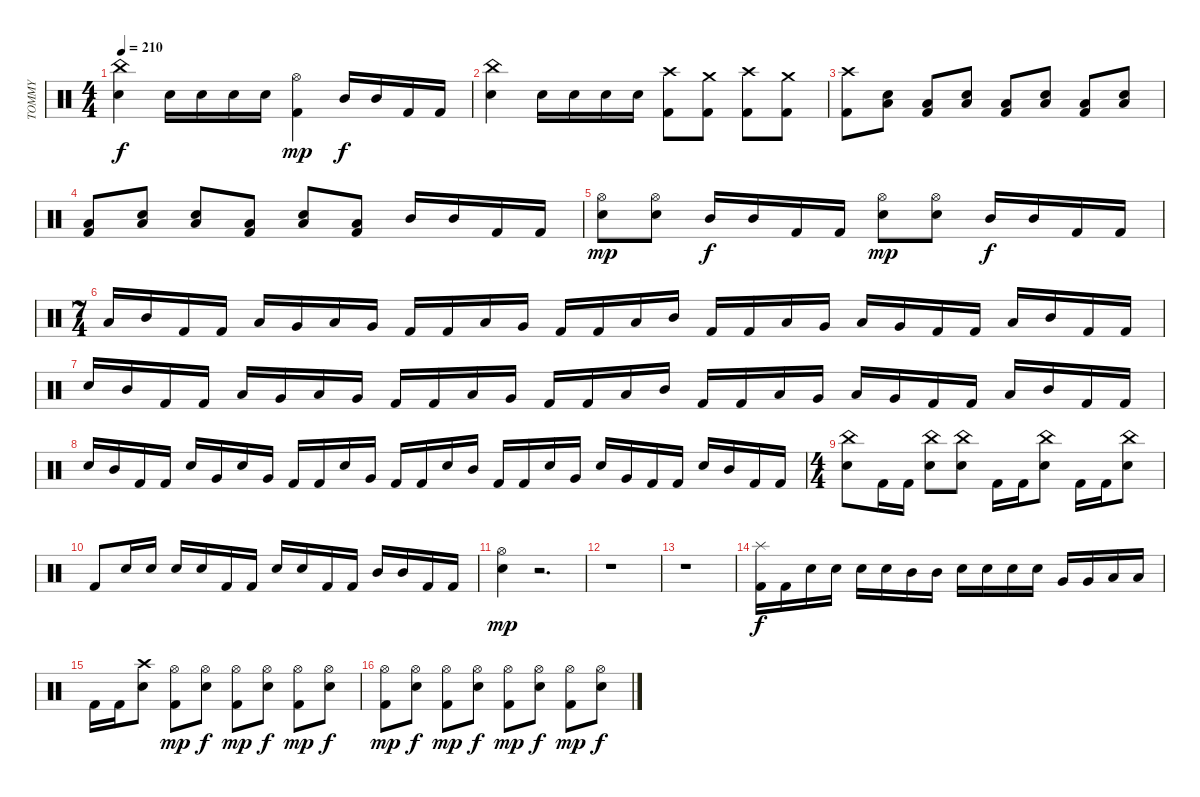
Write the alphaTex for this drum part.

\track ("TOMMY" "TOMMY") {instrument percussion}
\staff {score}
\articulation defaults
\ts (4 4)
\tempo 210
\clef neutral
\ks c
("Snare (hit) 2" "China (hit)").4{dy f} "Snare (hit) 2".16 "Snare (hit) 2".16 "Snare (hit) 2".16 "Snare (hit) 2".16 ("Kick (hit) 2" "Hi-Hat (open)").4{dy mp} "Mid Tom (hit)".16{dy f} "Mid Tom (hit)".16 "Kick (hit) 2".16 "Kick (hit) 2".16 |
("Snare (hit) 2" "China (hit)").4 "Snare (hit) 2".16 "Snare (hit) 2".16 "Snare (hit) 2".16 "Snare (hit) 2".16 ("Kick (hit) 2" "Crash high (hit)").8 ("Kick (hit) 2" "Crash medium (hit)").8 ("Kick (hit) 2" "Crash high (hit)").8 ("Kick (hit) 2" "Crash medium (hit)").8 |
("Kick (hit) 2" "Crash high (hit)").8 ("Snare (hit) 2" "Low Floor Tom (hit)").8 ("Kick (hit) 2" "Low Floor Tom (hit)").8 ("Snare (hit) 2" "Low Floor Tom (hit)").8 ("Kick (hit) 2" "Low Floor Tom (hit)").8 ("Snare (hit) 2" "Low Floor Tom (hit)").8 ("Kick (hit) 2" "Low Floor Tom (hit)").8 ("Snare (hit) 2" "Low Floor Tom (hit)").8 |
("Kick (hit) 2" "Low Floor Tom (hit)").8 ("Snare (hit) 2" "Low Floor Tom (hit)").8 ("Snare (hit) 2" "Low Floor Tom (hit)").8 ("Kick (hit) 2" "Low Floor Tom (hit)").8 ("Snare (hit) 2" "Low Floor Tom (hit)").8 ("Kick (hit) 2" "Low Floor Tom (hit)").8 "Mid Tom (hit)".16 "Mid Tom (hit)".16 "Kick (hit) 2".16 "Kick (hit) 2".16 |
("Snare (hit) 2" "Hi-Hat (open)").8{dy mp} ("Snare (hit) 2" "Hi-Hat (open)").8 "Mid Tom (hit)".16{dy f} "Mid Tom (hit)".16 "Kick (hit) 2".16 "Kick (hit) 2".16 ("Snare (hit) 2" "Hi-Hat (open)").8{dy mp} ("Snare (hit) 2" "Hi-Hat (open)").8 "Mid Tom (hit)".16{dy f} "Mid Tom (hit)".16 "Kick (hit) 2".16 "Kick (hit) 2".16 |
\ts (7 4)
"Low Floor Tom (hit)".16 "Mid Tom (hit)".16 "Kick (hit) 2".16 "Kick (hit) 2".16 "Low Floor Tom (hit)".16 "Very Low Tom (hit)".16 "Low Floor Tom (hit)".16 "Very Low Tom (hit)".16 "Kick (hit) 2".16 "Kick (hit) 2".16 "Low Floor Tom (hit)".16 "Very Low Tom (hit)".16 "Kick (hit) 2".16 "Kick (hit) 2".16 "Low Floor Tom (hit)".16 "Mid Tom (hit)".16 "Kick (hit) 2".16 "Kick (hit) 2".16 "Low Floor Tom (hit)".16 "Very Low Tom (hit)".16 "Low Floor Tom (hit)".16 "Very Low Tom (hit)".16 "Kick (hit) 2".16 "Kick (hit) 2".16 "Low Floor Tom (hit)".16 "Mid Tom (hit)".16 "Kick (hit) 2".16 "Kick (hit) 2".16 |
"Snare (hit) 2".16 "Mid Tom (hit)".16 "Kick (hit) 2".16 "Kick (hit) 2".16 "Low Floor Tom (hit)".16 "Very Low Tom (hit)".16 "Low Floor Tom (hit)".16 "Very Low Tom (hit)".16 "Kick (hit) 2".16 "Kick (hit) 2".16 "Low Floor Tom (hit)".16 "Very Low Tom (hit)".16 "Kick (hit) 2".16 "Kick (hit) 2".16 "Low Floor Tom (hit)".16 "Mid Tom (hit)".16 "Kick (hit) 2".16 "Kick (hit) 2".16 "Low Floor Tom (hit)".16 "Very Low Tom (hit)".16 "Low Floor Tom (hit)".16 "Very Low Tom (hit)".16 "Kick (hit) 2".16 "Kick (hit) 2".16 "Low Floor Tom (hit)".16 "Mid Tom (hit)".16 "Kick (hit) 2".16 "Kick (hit) 2".16 |
"Snare (hit) 2".16 "Mid Tom (hit)".16 "Kick (hit) 2".16 "Kick (hit) 2".16 "Snare (hit) 2".16 "Very Low Tom (hit)".16 "Snare (hit) 2".16 "Very Low Tom (hit)".16 "Kick (hit) 2".16 "Kick (hit) 2".16 "Snare (hit) 2".16 "Very Low Tom (hit)".16 "Kick (hit) 2".16 "Kick (hit) 2".16 "Snare (hit) 2".16 "Mid Tom (hit)".16 "Kick (hit) 2".16 "Kick (hit) 2".16 "Snare (hit) 2".16 "Very Low Tom (hit)".16 "Snare (hit) 2".16 "Very Low Tom (hit)".16 "Kick (hit) 2".16 "Kick (hit) 2".16 "Snare (hit) 2".16 "Mid Tom (hit)".16 "Kick (hit) 2".16 "Kick (hit) 2".16 |
\ts (4 4)
("Snare (hit) 2" "China (hit)").8 "Kick (hit) 2".16 "Kick (hit) 2".16 ("Snare (hit) 2" "China (hit)").8 ("Snare (hit) 2" "China (hit)").8 "Kick (hit) 2".16 "Kick (hit) 2".16 ("Snare (hit) 2" "China (hit)").8 "Kick (hit) 2".16 "Kick (hit) 2".16 ("Snare (hit) 2" "China (hit)").8 |
"Kick (hit) 2".8 "Snare (hit) 2".16 "Snare (hit) 2".16 "Snare (hit) 2".16 "Snare (hit) 2".16 "Kick (hit) 2".16 "Kick (hit) 2".16 "Snare (hit) 2".16 "Snare (hit) 2".16 "Kick (hit) 2".16 "Kick (hit) 2".16 "Mid Tom (hit)".16 "Mid Tom (hit)".16 "Kick (hit) 2".16 "Kick (hit) 2".16 |
("Snare (hit) 2" "Hi-Hat (open)").4{dy mp} r.2{d} |
r.1 |
r.1 |
("Kick (hit) 2" "Splash (hit)").16{dy f} "Kick (hit) 2".16 "Snare (hit) 2".16 "Snare (hit) 2".16 "Snare (hit) 2".16 "Snare (hit) 2".16 "Mid Tom (hit)".16 "Mid Tom (hit)".16 "Snare (hit) 2".16 "Snare (hit) 2".16 "Snare (hit) 2".16 "Snare (hit) 2".16 "Very Low Tom (hit)".16 "Very Low Tom (hit)".16 "Low Floor Tom (hit)".16 "Low Floor Tom (hit)".16 |
"Kick (hit) 2".16 "Kick (hit) 2".16 ("Snare (hit) 2" "Crash high (hit)").8 ("Kick (hit) 2" "Hi-Hat (open)").8{dy mp} ("Snare (hit) 2" "Hi-Hat (open)").8{dy f} ("Kick (hit) 2" "Hi-Hat (open)").8{dy mp} ("Snare (hit) 2" "Hi-Hat (open)").8{dy f} ("Kick (hit) 2" "Hi-Hat (open)").8{dy mp} ("Snare (hit) 2" "Hi-Hat (open)").8{dy f} |
("Kick (hit) 2" "Hi-Hat (open)").8{dy mp} ("Snare (hit) 2" "Hi-Hat (open)").8{dy f} ("Kick (hit) 2" "Hi-Hat (open)").8{dy mp} ("Snare (hit) 2" "Hi-Hat (open)").8{dy f} ("Kick (hit) 2" "Hi-Hat (open)").8{dy mp} ("Snare (hit) 2" "Hi-Hat (open)").8{dy f} ("Kick (hit) 2" "Hi-Hat (open)").8{dy mp} ("Snare (hit) 2" "Hi-Hat (open)").8{dy f}
